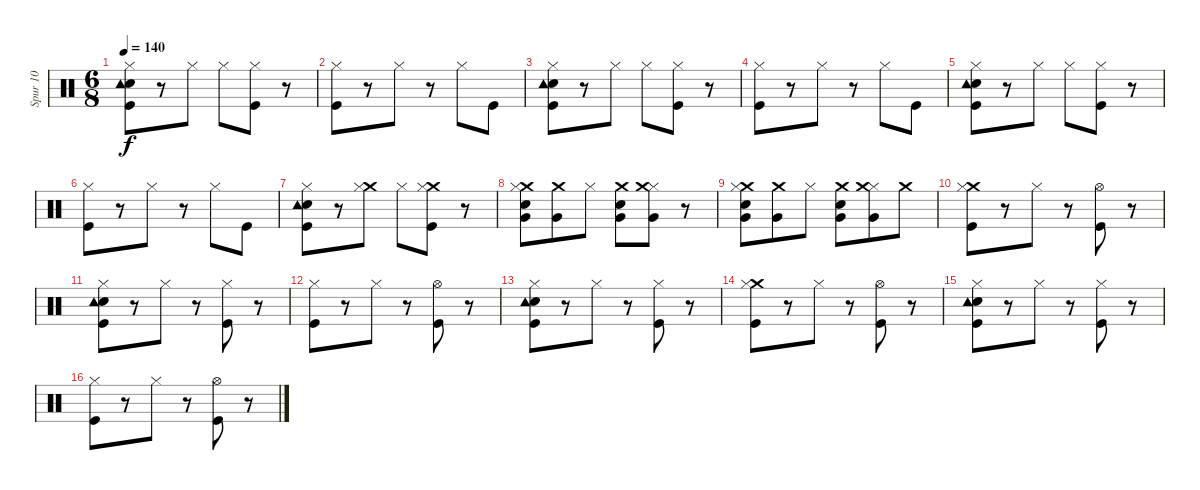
\track ("Spur 10" "Spur 10") {instrument percussion}
\staff {score}
\articulation defaults
\ts (6 8)
\tempo 140
\clef neutral
\ks c
("Kick (hit)" "Snare (hit) 2" "Tambourine (hit)" "Hi-Hat (closed)").8{dy f} r.8 "Hi-Hat (closed)".8 "Hi-Hat (closed)".8 ("Kick (hit)" "Hi-Hat (closed)").8 r.8 |
("Kick (hit)" "Hi-Hat (closed)").8 r.8 "Hi-Hat (closed)".8 r.8 "Hi-Hat (closed)".8 "Kick (hit)".8 |
("Kick (hit)" "Snare (hit) 2" "Tambourine (hit)" "Hi-Hat (closed)").8 r.8 "Hi-Hat (closed)".8 "Hi-Hat (closed)".8 ("Kick (hit)" "Hi-Hat (closed)").8 r.8 |
("Kick (hit)" "Hi-Hat (closed)").8 r.8 "Hi-Hat (closed)".8 r.8 "Hi-Hat (closed)".8 "Kick (hit)".8 |
("Kick (hit)" "Snare (hit) 2" "Tambourine (hit)" "Hi-Hat (closed)").8 r.8 "Hi-Hat (closed)".8 "Hi-Hat (closed)".8 ("Kick (hit)" "Hi-Hat (closed)").8 r.8 |
("Kick (hit)" "Hi-Hat (closed)").8 r.8 "Hi-Hat (closed)".8 r.8 "Hi-Hat (closed)".8 "Kick (hit)".8 |
("Kick (hit)" "Snare (hit) 2" "Tambourine (hit)" "Hi-Hat (closed)").8 r.8 ("Crash medium (hit)" "Hi-Hat (closed)").8 "Hi-Hat (closed)".8 ("Crash medium (hit)" "Kick (hit)" "Hi-Hat (closed)").8 r.8 |
("Crash medium (hit)" "Snare (hit) 2" "Hi-Hat (closed)" "Very Low Tom (hit)").8 ("Crash medium (hit)" "Very Low Tom (hit)").8 "Hi-Hat (closed)".8 ("Crash medium (hit)" "Snare (hit) 2" "Very Low Tom (hit)").8 ("Hi-Hat (closed)" "Crash medium (hit)" "Very Low Tom (hit)").8 r.8 |
("Crash medium (hit)" "Snare (hit) 2" "Hi-Hat (closed)" "Very Low Tom (hit)").8 ("Crash medium (hit)" "Very Low Tom (hit)").8 "Hi-Hat (closed)".8 ("Crash medium (hit)" "Snare (hit) 2" "Very Low Tom (hit)").8 ("Hi-Hat (closed)" "Crash medium (hit)" "Very Low Tom (hit)").8 "Crash medium (hit)".8 |
("Crash medium (hit)" "Kick (hit)" "Hi-Hat (closed)").8 r.8 "Hi-Hat (closed)".8 r.8 ("Hi-Hat (open)" "Kick (hit)").8 r.8 |
("Kick (hit)" "Snare (hit) 2" "Tambourine (hit)" "Hi-Hat (closed)").8 r.8 "Hi-Hat (closed)".8 r.8 ("Kick (hit)" "Hi-Hat (closed)").8 r.8 |
("Kick (hit)" "Hi-Hat (closed)").8 r.8 "Hi-Hat (closed)".8 r.8 ("Hi-Hat (open)" "Kick (hit)").8 r.8 |
("Kick (hit)" "Snare (hit) 2" "Tambourine (hit)" "Hi-Hat (closed)").8 r.8 "Hi-Hat (closed)".8 r.8 ("Kick (hit)" "Hi-Hat (closed)").8 r.8 |
("Crash medium (hit)" "Kick (hit)" "Hi-Hat (closed)").8 r.8 "Hi-Hat (closed)".8 r.8 ("Hi-Hat (open)" "Kick (hit)").8 r.8 |
("Kick (hit)" "Snare (hit) 2" "Tambourine (hit)" "Hi-Hat (closed)").8 r.8 "Hi-Hat (closed)".8 r.8 ("Kick (hit)" "Hi-Hat (closed)").8 r.8 |
("Kick (hit)" "Hi-Hat (closed)").8 r.8 "Hi-Hat (closed)".8 r.8 ("Hi-Hat (open)" "Kick (hit)").8 r.8
